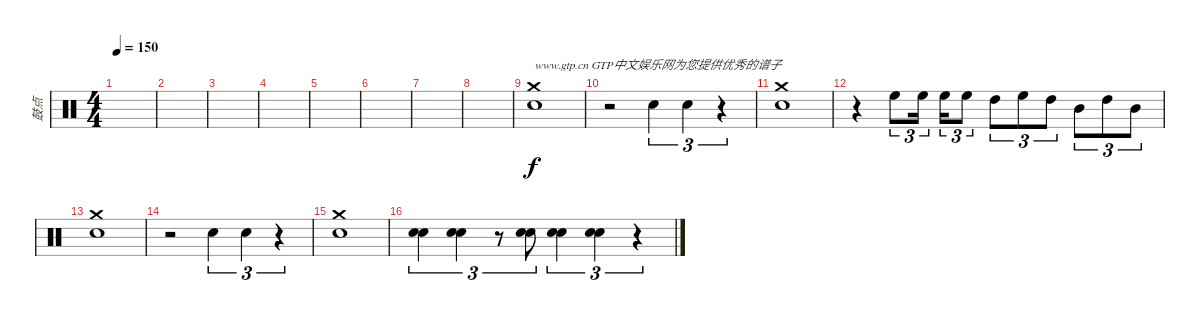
\track ("鼓点" "鼓点") {instrument percussion}
\staff {score}
\articulation defaults
\ts (4 4)
\tempo 150
\clef neutral
\ks c
|
|
|
|
|
|
|
|
("Snare (hit) 2" "Crash medium (hit)").1{txt "www.gtp.cn GTP中文娱乐网为您提供优秀的谱子"} |
r.2 "Snare (hit) 2".4{tu (3 2)} "Snare (hit) 2".4{tu (3 2)} r.4{tu (3 2)} |
("Snare (hit) 2" "Crash medium (hit)").1 |
r.4 "High Floor Tom (hit)".8{tu (3 2)} "High Floor Tom (hit)".16{tu (3 2) beam splitsecondary} "High Floor Tom (hit)".16{tu (3 2)} "High Floor Tom (hit)".8{tu (3 2)} "High Tom (hit)".8{tu (3 2)} "High Floor Tom (hit)".8{tu (3 2)} "High Tom (hit)".8{tu (3 2)} "Mid Tom (hit)".8{tu (3 2)} "High Tom (hit)".8{tu (3 2)} "Mid Tom (hit)".8{tu (3 2)} |
("Snare (hit) 2" "Crash medium (hit)").1 |
r.2 "Snare (hit) 2".4{tu (3 2)} "Snare (hit) 2".4{tu (3 2)} r.4{tu (3 2)} |
("Snare (hit) 2" "Crash medium (hit)").1 |
("Hand Clap (hit)" "Snare (hit) 2").4{tu (3 2)} ("Hand Clap (hit)" "Snare (hit) 2").4{tu (3 2)} r.8{tu (3 2)} ("Hand Clap (hit)" "Snare (hit) 2").8{tu (3 2)} ("Hand Clap (hit)" "Snare (hit) 2").4{tu (3 2)} ("Hand Clap (hit)" "Snare (hit) 2").4{tu (3 2)} r.4{tu (3 2)}
